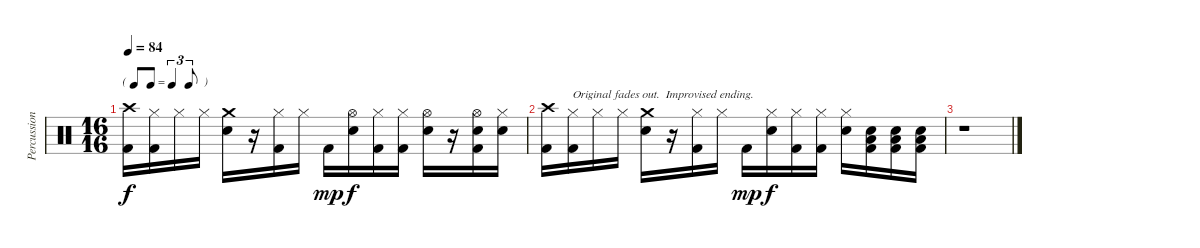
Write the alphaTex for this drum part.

\track ("Percussion" "Percussion") {instrument percussion}
\staff {score}
\articulation defaults
\ts (16 16)
\tf triplet8th
\tempo 84
\clef neutral
\ks c
("Crash high (hit)" "Kick (hit) 2").16{dy f} ("Hi-Hat (closed)" "Kick (hit) 2").16 "Hi-Hat (closed)".16 "Hi-Hat (closed)".16 ("Crash medium (hit)" "Electric Snare (hit)").16 r.16 ("Hi-Hat (closed)" "Kick (hit) 2").16 "Hi-Hat (closed)".16 "Kick (hit) 2".16{dy mp} ("Hi-Hat (open)" "Electric Snare (hit)").16{dy f} ("Hi-Hat (closed)" "Kick (hit) 2").16 ("Hi-Hat (closed)" "Kick (hit) 2").16 ("Hi-Hat (open)" "Electric Snare (hit)").16 r.16 ("Hi-Hat (open)" "Electric Snare (hit)" "Kick (hit) 2").16 ("Hi-Hat (closed)" "Electric Snare (hit)").16 |
("Crash high (hit)" "Kick (hit) 2").16 ("Hi-Hat (closed)" "Kick (hit) 2").16{txt "Original fades out.  Improvised ending."} "Hi-Hat (closed)".16 "Hi-Hat (closed)".16 ("Crash medium (hit)" "Electric Snare (hit)").16 r.16 ("Hi-Hat (closed)" "Kick (hit) 2").16 "Hi-Hat (closed)".16 "Kick (hit) 2".16{dy mp} ("Hi-Hat (closed)" "Electric Snare (hit)").16{dy f} ("Hi-Hat (closed)" "Kick (hit) 2").16 ("Hi-Hat (closed)" "Kick (hit) 2").16 ("Hi-Hat (closed)" "Electric Snare (hit)").16 ("Low Tom (hit)" "Electric Snare (hit)" "Kick (hit) 2").16 ("Low Tom (hit)" "Electric Snare (hit)" "Kick (hit) 2").16 ("Low Tom (hit)" "Electric Snare (hit)" "Kick (hit) 2").16 |
r.1
